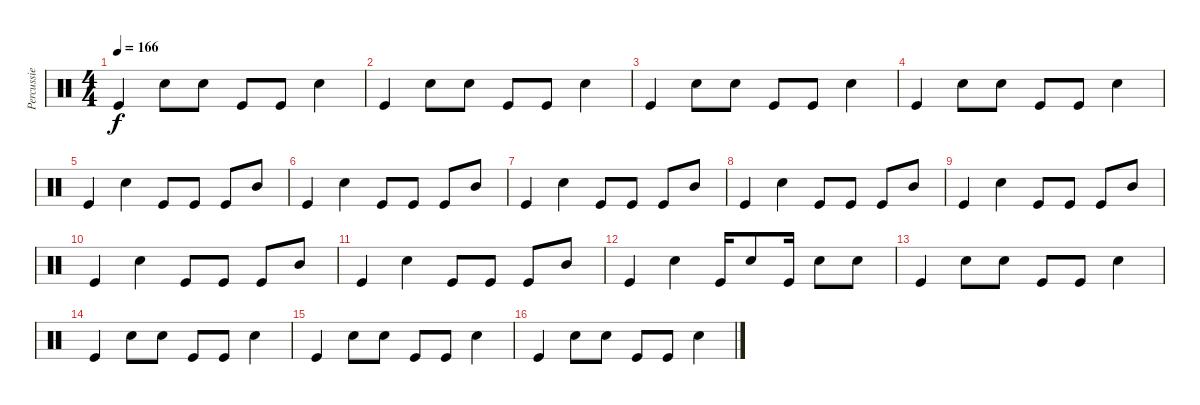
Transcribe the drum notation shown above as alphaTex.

\track ("Percussie" "Percussie") {instrument percussion}
\staff {score}
\articulation defaults
\ts (4 4)
\tempo 166
\clef neutral
\ks c "Kick (hit)".4{dy f} "Electric Snare (hit)".8 "Electric Snare (hit)".8 "Kick (hit)".8 "Kick (hit)".8 "Electric Snare (hit)".4
|
"Kick (hit)".4 "Electric Snare (hit)".8 "Electric Snare (hit)".8 "Kick (hit)".8 "Kick (hit)".8 "Electric Snare (hit)".4 |
"Kick (hit)".4 "Electric Snare (hit)".8 "Electric Snare (hit)".8 "Kick (hit)".8 "Kick (hit)".8 "Electric Snare (hit)".4 |
"Kick (hit)".4 "Electric Snare (hit)".8 "Electric Snare (hit)".8 "Kick (hit)".8 "Kick (hit)".8 "Electric Snare (hit)".4 |
"Kick (hit)".4 "Electric Snare (hit)".4 "Kick (hit)".8 "Kick (hit)".8 "Kick (hit)".8 "Mid Tom (hit)".8 |
"Kick (hit)".4 "Electric Snare (hit)".4 "Kick (hit)".8 "Kick (hit)".8 "Kick (hit)".8 "Mid Tom (hit)".8 |
"Kick (hit)".4 "Electric Snare (hit)".4 "Kick (hit)".8 "Kick (hit)".8 "Kick (hit)".8 "Mid Tom (hit)".8 |
"Kick (hit)".4 "Electric Snare (hit)".4 "Kick (hit)".8 "Kick (hit)".8 "Kick (hit)".8 "Mid Tom (hit)".8 |
"Kick (hit)".4 "Electric Snare (hit)".4 "Kick (hit)".8 "Kick (hit)".8 "Kick (hit)".8 "Mid Tom (hit)".8 |
"Kick (hit)".4 "Electric Snare (hit)".4 "Kick (hit)".8 "Kick (hit)".8 "Kick (hit)".8 "Mid Tom (hit)".8 |
"Kick (hit)".4 "Electric Snare (hit)".4 "Kick (hit)".8 "Kick (hit)".8 "Kick (hit)".8 "Mid Tom (hit)".8 |
"Kick (hit)".4 "Electric Snare (hit)".4 "Kick (hit)".16 "Electric Snare (hit)".8 "Kick (hit)".16 "Electric Snare (hit)".8 "Electric Snare (hit)".8 |
"Kick (hit)".4 "Electric Snare (hit)".8 "Electric Snare (hit)".8 "Kick (hit)".8 "Kick (hit)".8 "Electric Snare (hit)".4 |
"Kick (hit)".4 "Electric Snare (hit)".8 "Electric Snare (hit)".8 "Kick (hit)".8 "Kick (hit)".8 "Electric Snare (hit)".4 |
"Kick (hit)".4 "Electric Snare (hit)".8 "Electric Snare (hit)".8 "Kick (hit)".8 "Kick (hit)".8 "Electric Snare (hit)".4 |
"Kick (hit)".4 "Electric Snare (hit)".8 "Electric Snare (hit)".8 "Kick (hit)".8 "Kick (hit)".8 "Electric Snare (hit)".4
